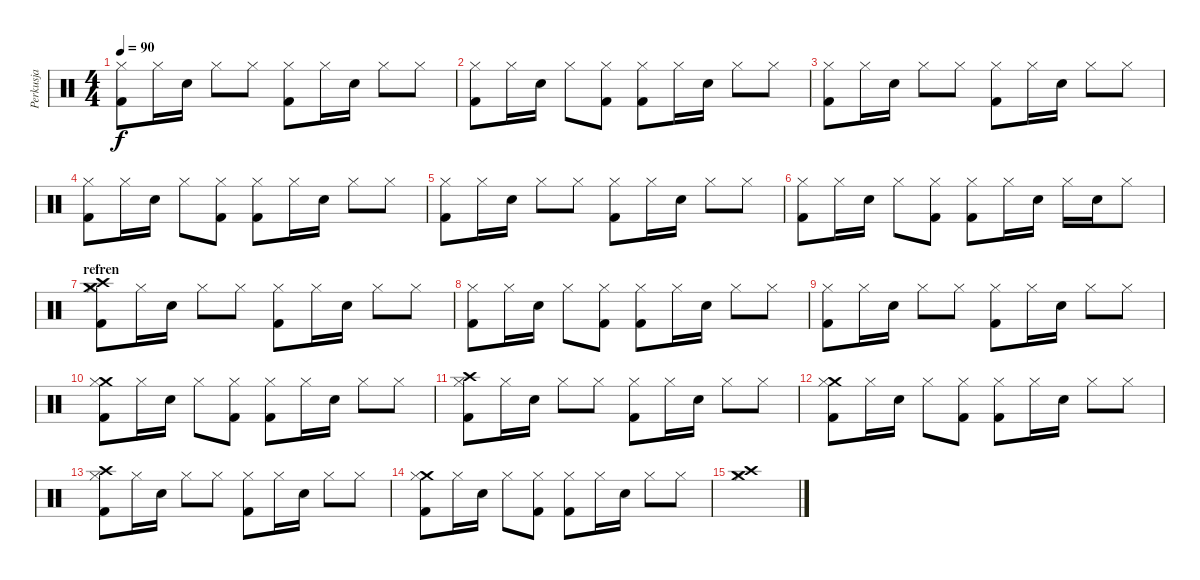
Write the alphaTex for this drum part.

\track ("Perkusja" "Perkusja") {instrument percussion}
\staff {score}
\articulation defaults
\ts (4 4)
\tempo 90
\clef neutral
\ks c
("Kick (hit) 2" "Hi-Hat (closed)").8{dy f} "Hi-Hat (closed)".16 "Electric Snare (hit)".16 "Hi-Hat (closed)".8 "Hi-Hat (closed)".8 ("Kick (hit) 2" "Hi-Hat (closed)").8 "Hi-Hat (closed)".16 "Electric Snare (hit)".16 "Hi-Hat (closed)".8 "Hi-Hat (closed)".8 |
("Kick (hit) 2" "Hi-Hat (closed)").8 "Hi-Hat (closed)".16 "Electric Snare (hit)".16 "Hi-Hat (closed)".8 ("Kick (hit) 2" "Hi-Hat (closed)").8 ("Kick (hit) 2" "Hi-Hat (closed)").8 "Hi-Hat (closed)".16 "Electric Snare (hit)".16 "Hi-Hat (closed)".8 "Hi-Hat (closed)".8 |
("Kick (hit) 2" "Hi-Hat (closed)").8 "Hi-Hat (closed)".16 "Electric Snare (hit)".16 "Hi-Hat (closed)".8 "Hi-Hat (closed)".8 ("Kick (hit) 2" "Hi-Hat (closed)").8 "Hi-Hat (closed)".16 "Electric Snare (hit)".16 "Hi-Hat (closed)".8 "Hi-Hat (closed)".8 |
("Kick (hit) 2" "Hi-Hat (closed)").8 "Hi-Hat (closed)".16 "Electric Snare (hit)".16 "Hi-Hat (closed)".8 ("Kick (hit) 2" "Hi-Hat (closed)").8 ("Kick (hit) 2" "Hi-Hat (closed)").8 "Hi-Hat (closed)".16 "Electric Snare (hit)".16 "Hi-Hat (closed)".8 "Hi-Hat (closed)".8 |
("Kick (hit) 2" "Hi-Hat (closed)").8 "Hi-Hat (closed)".16 "Electric Snare (hit)".16 "Hi-Hat (closed)".8 "Hi-Hat (closed)".8 ("Kick (hit) 2" "Hi-Hat (closed)").8 "Hi-Hat (closed)".16 "Electric Snare (hit)".16 "Hi-Hat (closed)".8 "Hi-Hat (closed)".8 |
("Kick (hit) 2" "Hi-Hat (closed)").8 "Hi-Hat (closed)".16 "Electric Snare (hit)".16 "Hi-Hat (closed)".8 ("Kick (hit) 2" "Hi-Hat (closed)").8 ("Kick (hit) 2" "Hi-Hat (closed)").8 "Hi-Hat (closed)".16 "Electric Snare (hit)".16 "Hi-Hat (closed)".16 "Electric Snare (hit)".16 "Hi-Hat (closed)".8 |
\section ("" "refren")
("Crash medium (hit)" "Crash high (hit)" "Kick (hit) 2" "Hi-Hat (closed)").8 "Hi-Hat (closed)".16 "Electric Snare (hit)".16 "Hi-Hat (closed)".8 "Hi-Hat (closed)".8 ("Kick (hit) 2" "Hi-Hat (closed)").8 "Hi-Hat (closed)".16 "Electric Snare (hit)".16 "Hi-Hat (closed)".8 "Hi-Hat (closed)".8 |
("Kick (hit) 2" "Hi-Hat (closed)").8 "Hi-Hat (closed)".16 "Electric Snare (hit)".16 "Hi-Hat (closed)".8 ("Kick (hit) 2" "Hi-Hat (closed)").8 ("Kick (hit) 2" "Hi-Hat (closed)").8 "Hi-Hat (closed)".16 "Electric Snare (hit)".16 "Hi-Hat (closed)".8 "Hi-Hat (closed)".8 |
("Kick (hit) 2" "Hi-Hat (closed)").8 "Hi-Hat (closed)".16 "Electric Snare (hit)".16 "Hi-Hat (closed)".8 "Hi-Hat (closed)".8 ("Kick (hit) 2" "Hi-Hat (closed)").8 "Hi-Hat (closed)".16 "Electric Snare (hit)".16 "Hi-Hat (closed)".8 "Hi-Hat (closed)".8 |
("Crash medium (hit)" "Kick (hit) 2" "Hi-Hat (closed)").8 "Hi-Hat (closed)".16 "Electric Snare (hit)".16 "Hi-Hat (closed)".8 ("Kick (hit) 2" "Hi-Hat (closed)").8 ("Kick (hit) 2" "Hi-Hat (closed)").8 "Hi-Hat (closed)".16 "Electric Snare (hit)".16 "Hi-Hat (closed)".8 "Hi-Hat (closed)".8 |
("Crash high (hit)" "Kick (hit) 2" "Hi-Hat (closed)").8 "Hi-Hat (closed)".16 "Electric Snare (hit)".16 "Hi-Hat (closed)".8 "Hi-Hat (closed)".8 ("Kick (hit) 2" "Hi-Hat (closed)").8 "Hi-Hat (closed)".16 "Electric Snare (hit)".16 "Hi-Hat (closed)".8 "Hi-Hat (closed)".8 |
("Crash medium (hit)" "Kick (hit) 2" "Hi-Hat (closed)").8 "Hi-Hat (closed)".16 "Electric Snare (hit)".16 "Hi-Hat (closed)".8 ("Kick (hit) 2" "Hi-Hat (closed)").8 ("Kick (hit) 2" "Hi-Hat (closed)").8 "Hi-Hat (closed)".16 "Electric Snare (hit)".16 "Hi-Hat (closed)".8 "Hi-Hat (closed)".8 |
("Crash high (hit)" "Kick (hit) 2" "Hi-Hat (closed)").8 "Hi-Hat (closed)".16 "Electric Snare (hit)".16 "Hi-Hat (closed)".8 "Hi-Hat (closed)".8 ("Kick (hit) 2" "Hi-Hat (closed)").8 "Hi-Hat (closed)".16 "Electric Snare (hit)".16 "Hi-Hat (closed)".8 "Hi-Hat (closed)".8 |
("Crash medium (hit)" "Kick (hit) 2" "Hi-Hat (closed)").8 "Hi-Hat (closed)".16 "Electric Snare (hit)".16 "Hi-Hat (closed)".8 ("Kick (hit) 2" "Hi-Hat (closed)").8 ("Kick (hit) 2" "Hi-Hat (closed)").8 "Hi-Hat (closed)".16 "Electric Snare (hit)".16 "Hi-Hat (closed)".8 "Hi-Hat (closed)".8 |
("Crash medium (hit)" "Crash high (hit)" "Hi-Hat (closed)").1
